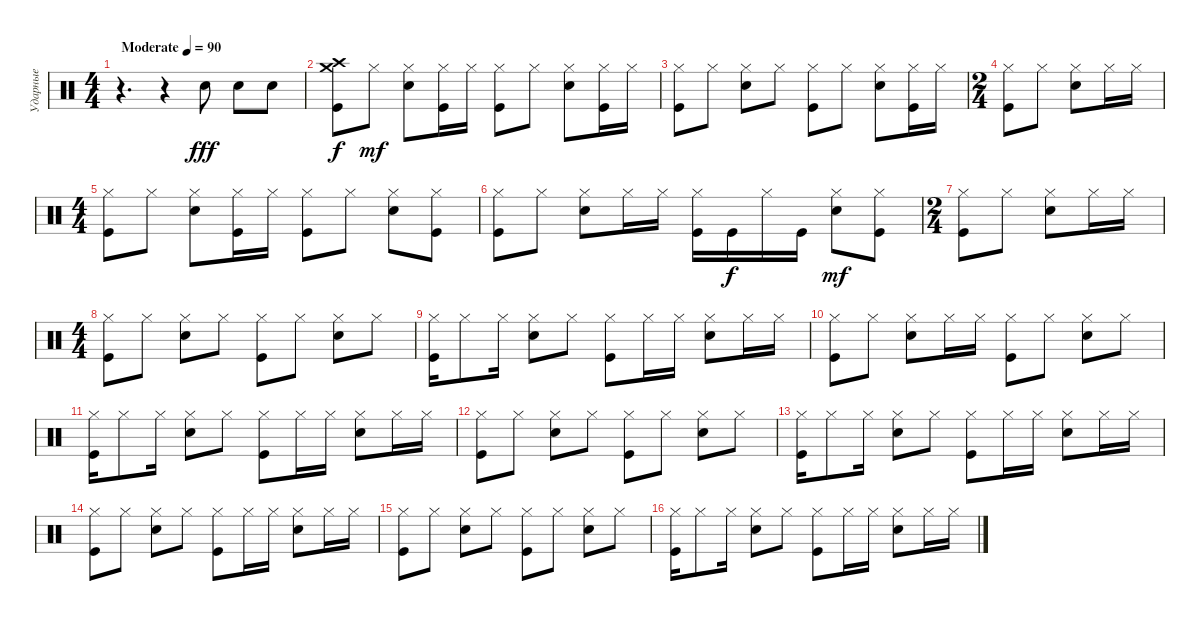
\track ("Ударные" "Ударные") {instrument percussion}
\staff {score}
\articulation defaults
\ts (4 4)
\tempo (90 "Moderate")
\clef neutral
\ks c
r.4{d dy fff} r.4 "Snare (hit) 2".8 "Snare (hit) 2".8 "Snare (hit) 2".8 |
("Crash high (hit)" "Crash medium (hit)" "Kick (hit)").8{dy f} "Hi-Hat (closed)".8{dy mf} ("Hi-Hat (closed)" "Snare (hit) 2").8 ("Hi-Hat (closed)" "Kick (hit)").16 "Hi-Hat (closed)".16 ("Hi-Hat (closed)" "Kick (hit)").8 "Hi-Hat (closed)".8 ("Hi-Hat (closed)" "Snare (hit) 2").8 ("Hi-Hat (closed)" "Kick (hit)").16 "Hi-Hat (closed)".16 |
("Kick (hit)" "Hi-Hat (closed)").8 "Hi-Hat (closed)".8 ("Hi-Hat (closed)" "Snare (hit) 2").8 "Hi-Hat (closed)".8 ("Hi-Hat (closed)" "Kick (hit)").8 "Hi-Hat (closed)".8 ("Hi-Hat (closed)" "Snare (hit) 2").8 ("Hi-Hat (closed)" "Kick (hit)").16 "Hi-Hat (closed)".16 |
\ts (2 4)
("Hi-Hat (closed)" "Kick (hit)").8 "Hi-Hat (closed)".8 ("Hi-Hat (closed)" "Snare (hit) 2").8 "Hi-Hat (closed)".16 "Hi-Hat (closed)".16 |
\ts (4 4)
("Hi-Hat (closed)" "Kick (hit)").8 "Hi-Hat (closed)".8 ("Hi-Hat (closed)" "Snare (hit) 2").8 ("Hi-Hat (closed)" "Kick (hit)").16 "Hi-Hat (closed)".16 ("Hi-Hat (closed)" "Kick (hit)").8 "Hi-Hat (closed)".8 ("Hi-Hat (closed)" "Snare (hit) 2").8 ("Hi-Hat (closed)" "Kick (hit)").8 |
("Kick (hit)" "Hi-Hat (closed)").8 "Hi-Hat (closed)".8 ("Hi-Hat (closed)" "Snare (hit) 2").8 "Hi-Hat (closed)".16 "Hi-Hat (closed)".16 ("Kick (hit)" "Hi-Hat (closed)").16 "Kick (hit)".16{dy f} "Hi-Hat (closed)".16 "Kick (hit)".16 ("Hi-Hat (closed)" "Snare (hit) 2").8{dy mf} ("Hi-Hat (closed)" "Kick (hit)").8 |
\ts (2 4)
("Hi-Hat (closed)" "Kick (hit)").8 "Hi-Hat (closed)".8 ("Hi-Hat (closed)" "Snare (hit) 2").8 "Hi-Hat (closed)".16 "Hi-Hat (closed)".16 |
\ts (4 4)
("Hi-Hat (closed)" "Kick (hit)").8 "Hi-Hat (closed)".8 ("Hi-Hat (closed)" "Snare (hit) 2").8 "Hi-Hat (closed)".8 ("Hi-Hat (closed)" "Kick (hit)").8 "Hi-Hat (closed)".8 ("Hi-Hat (closed)" "Snare (hit) 2").8 "Hi-Hat (closed)".8 |
("Hi-Hat (closed)" "Kick (hit)").16 "Hi-Hat (closed)".8 "Hi-Hat (closed)".16 ("Hi-Hat (closed)" "Snare (hit) 2").8 "Hi-Hat (closed)".8 ("Hi-Hat (closed)" "Kick (hit)").8 "Hi-Hat (closed)".16 "Hi-Hat (closed)".16 ("Hi-Hat (closed)" "Snare (hit) 2").8 "Hi-Hat (closed)".16 "Hi-Hat (closed)".16 |
("Hi-Hat (closed)" "Kick (hit)").8 "Hi-Hat (closed)".8 ("Hi-Hat (closed)" "Snare (hit) 2").8 "Hi-Hat (closed)".16 "Hi-Hat (closed)".16 ("Hi-Hat (closed)" "Kick (hit)").8 "Hi-Hat (closed)".8 ("Hi-Hat (closed)" "Snare (hit) 2").8 "Hi-Hat (closed)".8 |
("Hi-Hat (closed)" "Kick (hit)").16 "Hi-Hat (closed)".8 "Hi-Hat (closed)".16 ("Hi-Hat (closed)" "Snare (hit) 2").8 "Hi-Hat (closed)".8 ("Hi-Hat (closed)" "Kick (hit)").8 "Hi-Hat (closed)".16 "Hi-Hat (closed)".16 ("Hi-Hat (closed)" "Snare (hit) 2").8 "Hi-Hat (closed)".16 "Hi-Hat (closed)".16 |
("Hi-Hat (closed)" "Kick (hit)").8 "Hi-Hat (closed)".8 ("Hi-Hat (closed)" "Snare (hit) 2").8 "Hi-Hat (closed)".8 ("Hi-Hat (closed)" "Kick (hit)").8 "Hi-Hat (closed)".8 ("Hi-Hat (closed)" "Snare (hit) 2").8 "Hi-Hat (closed)".8 |
("Hi-Hat (closed)" "Kick (hit)").16 "Hi-Hat (closed)".8 "Hi-Hat (closed)".16 ("Hi-Hat (closed)" "Snare (hit) 2").8 "Hi-Hat (closed)".8 ("Hi-Hat (closed)" "Kick (hit)").8 "Hi-Hat (closed)".16 "Hi-Hat (closed)".16 ("Hi-Hat (closed)" "Snare (hit) 2").8 "Hi-Hat (closed)".16 "Hi-Hat (closed)".16 |
("Hi-Hat (closed)" "Kick (hit)").8 "Hi-Hat (closed)".8 ("Hi-Hat (closed)" "Snare (hit) 2").8 "Hi-Hat (closed)".8 ("Hi-Hat (closed)" "Kick (hit)").8 "Hi-Hat (closed)".16 "Hi-Hat (closed)".16 ("Hi-Hat (closed)" "Snare (hit) 2").8 "Hi-Hat (closed)".16 "Hi-Hat (closed)".16 |
("Hi-Hat (closed)" "Kick (hit)").8 "Hi-Hat (closed)".8 ("Hi-Hat (closed)" "Snare (hit) 2").8 "Hi-Hat (closed)".8 ("Hi-Hat (closed)" "Kick (hit)").8 "Hi-Hat (closed)".8 ("Hi-Hat (closed)" "Snare (hit) 2").8 "Hi-Hat (closed)".8 |
("Hi-Hat (closed)" "Kick (hit)").16 "Hi-Hat (closed)".8 "Hi-Hat (closed)".16 ("Hi-Hat (closed)" "Snare (hit) 2").8 "Hi-Hat (closed)".8 ("Hi-Hat (closed)" "Kick (hit)").8 "Hi-Hat (closed)".16 "Hi-Hat (closed)".16 ("Hi-Hat (closed)" "Snare (hit) 2").8 "Hi-Hat (closed)".16 "Hi-Hat (closed)".16
